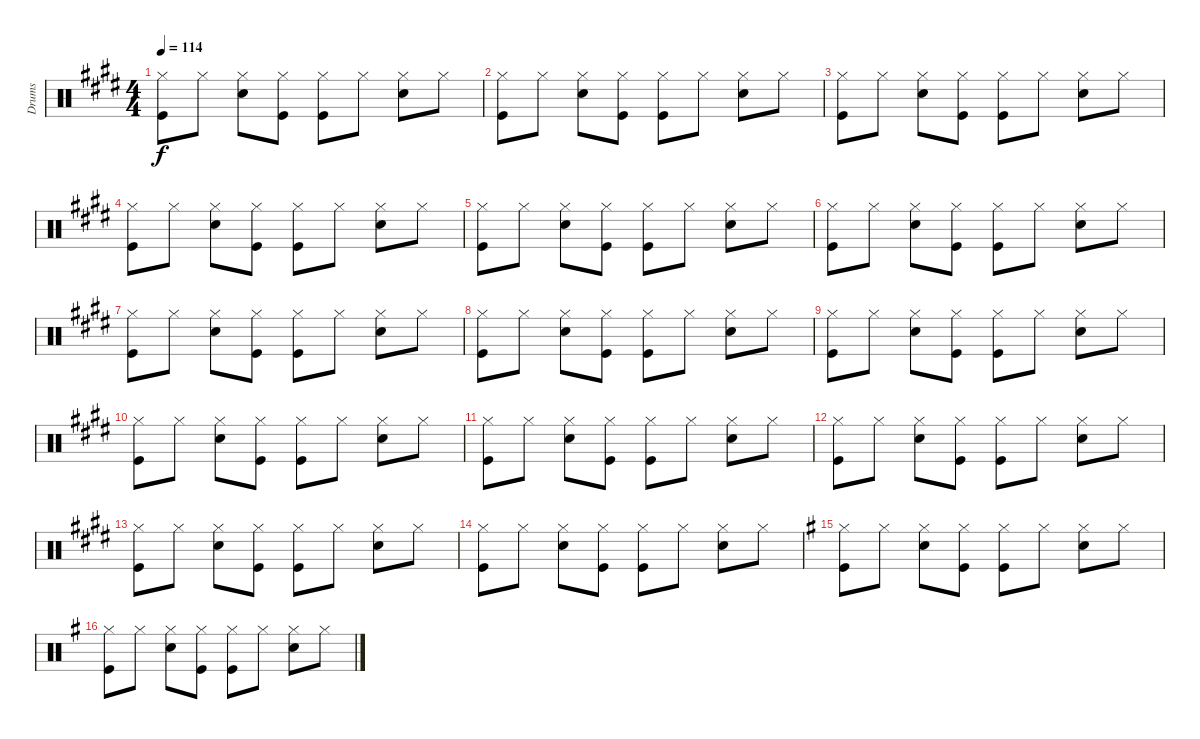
\track ("Drums" "Drums") {instrument percussion}
\staff {score}
\articulation defaults
\ts (4 4)
\tempo 114
\clef neutral
\ks e
("Hi-Hat (closed)" "Kick (hit)").8{dy f} "Hi-Hat (closed)".8 ("Snare (hit) 2" "Hi-Hat (closed)").8 ("Hi-Hat (closed)" "Kick (hit)").8 ("Hi-Hat (closed)" "Kick (hit)").8 "Hi-Hat (closed)".8 ("Hi-Hat (closed)" "Snare (hit) 2").8 "Hi-Hat (closed)".8 |
("Hi-Hat (closed)" "Kick (hit)").8 "Hi-Hat (closed)".8 ("Snare (hit) 2" "Hi-Hat (closed)").8 ("Hi-Hat (closed)" "Kick (hit)").8 ("Hi-Hat (closed)" "Kick (hit)").8 "Hi-Hat (closed)".8 ("Hi-Hat (closed)" "Snare (hit) 2").8 "Hi-Hat (closed)".8 |
("Hi-Hat (closed)" "Kick (hit)").8 "Hi-Hat (closed)".8 ("Snare (hit) 2" "Hi-Hat (closed)").8 ("Hi-Hat (closed)" "Kick (hit)").8 ("Hi-Hat (closed)" "Kick (hit)").8 "Hi-Hat (closed)".8 ("Hi-Hat (closed)" "Snare (hit) 2").8 "Hi-Hat (closed)".8 |
("Hi-Hat (closed)" "Kick (hit)").8 "Hi-Hat (closed)".8 ("Snare (hit) 2" "Hi-Hat (closed)").8 ("Hi-Hat (closed)" "Kick (hit)").8 ("Hi-Hat (closed)" "Kick (hit)").8 "Hi-Hat (closed)".8 ("Hi-Hat (closed)" "Snare (hit) 2").8 "Hi-Hat (closed)".8 |
("Hi-Hat (closed)" "Kick (hit)").8 "Hi-Hat (closed)".8 ("Snare (hit) 2" "Hi-Hat (closed)").8 ("Hi-Hat (closed)" "Kick (hit)").8 ("Hi-Hat (closed)" "Kick (hit)").8 "Hi-Hat (closed)".8 ("Hi-Hat (closed)" "Snare (hit) 2").8 "Hi-Hat (closed)".8 |
("Hi-Hat (closed)" "Kick (hit)").8 "Hi-Hat (closed)".8 ("Snare (hit) 2" "Hi-Hat (closed)").8 ("Hi-Hat (closed)" "Kick (hit)").8 ("Hi-Hat (closed)" "Kick (hit)").8 "Hi-Hat (closed)".8 ("Hi-Hat (closed)" "Snare (hit) 2").8 "Hi-Hat (closed)".8 |
("Hi-Hat (closed)" "Kick (hit)").8 "Hi-Hat (closed)".8 ("Snare (hit) 2" "Hi-Hat (closed)").8 ("Hi-Hat (closed)" "Kick (hit)").8 ("Hi-Hat (closed)" "Kick (hit)").8 "Hi-Hat (closed)".8 ("Hi-Hat (closed)" "Snare (hit) 2").8 "Hi-Hat (closed)".8 |
("Hi-Hat (closed)" "Kick (hit)").8 "Hi-Hat (closed)".8 ("Snare (hit) 2" "Hi-Hat (closed)").8 ("Hi-Hat (closed)" "Kick (hit)").8 ("Hi-Hat (closed)" "Kick (hit)").8 "Hi-Hat (closed)".8 ("Hi-Hat (closed)" "Snare (hit) 2").8 "Hi-Hat (closed)".8 |
("Hi-Hat (closed)" "Kick (hit)").8 "Hi-Hat (closed)".8 ("Snare (hit) 2" "Hi-Hat (closed)").8 ("Hi-Hat (closed)" "Kick (hit)").8 ("Hi-Hat (closed)" "Kick (hit)").8 "Hi-Hat (closed)".8 ("Hi-Hat (closed)" "Snare (hit) 2").8 "Hi-Hat (closed)".8 |
("Hi-Hat (closed)" "Kick (hit)").8 "Hi-Hat (closed)".8 ("Snare (hit) 2" "Hi-Hat (closed)").8 ("Hi-Hat (closed)" "Kick (hit)").8 ("Hi-Hat (closed)" "Kick (hit)").8 "Hi-Hat (closed)".8 ("Hi-Hat (closed)" "Snare (hit) 2").8 "Hi-Hat (closed)".8 |
("Hi-Hat (closed)" "Kick (hit)").8 "Hi-Hat (closed)".8 ("Snare (hit) 2" "Hi-Hat (closed)").8 ("Hi-Hat (closed)" "Kick (hit)").8 ("Hi-Hat (closed)" "Kick (hit)").8 "Hi-Hat (closed)".8 ("Hi-Hat (closed)" "Snare (hit) 2").8 "Hi-Hat (closed)".8 |
("Hi-Hat (closed)" "Kick (hit)").8 "Hi-Hat (closed)".8 ("Snare (hit) 2" "Hi-Hat (closed)").8 ("Hi-Hat (closed)" "Kick (hit)").8 ("Hi-Hat (closed)" "Kick (hit)").8 "Hi-Hat (closed)".8 ("Hi-Hat (closed)" "Snare (hit) 2").8 "Hi-Hat (closed)".8 |
("Hi-Hat (closed)" "Kick (hit)").8 "Hi-Hat (closed)".8 ("Snare (hit) 2" "Hi-Hat (closed)").8 ("Hi-Hat (closed)" "Kick (hit)").8 ("Hi-Hat (closed)" "Kick (hit)").8 "Hi-Hat (closed)".8 ("Hi-Hat (closed)" "Snare (hit) 2").8 "Hi-Hat (closed)".8 |
("Hi-Hat (closed)" "Kick (hit)").8 "Hi-Hat (closed)".8 ("Snare (hit) 2" "Hi-Hat (closed)").8 ("Hi-Hat (closed)" "Kick (hit)").8 ("Hi-Hat (closed)" "Kick (hit)").8 "Hi-Hat (closed)".8 ("Hi-Hat (closed)" "Snare (hit) 2").8 "Hi-Hat (closed)".8 |
\ks g
("Hi-Hat (closed)" "Kick (hit)").8 "Hi-Hat (closed)".8 ("Snare (hit) 2" "Hi-Hat (closed)").8 ("Hi-Hat (closed)" "Kick (hit)").8 ("Hi-Hat (closed)" "Kick (hit)").8 "Hi-Hat (closed)".8 ("Hi-Hat (closed)" "Snare (hit) 2").8 "Hi-Hat (closed)".8 |
("Hi-Hat (closed)" "Kick (hit)").8 "Hi-Hat (closed)".8 ("Snare (hit) 2" "Hi-Hat (closed)").8 ("Hi-Hat (closed)" "Kick (hit)").8 ("Hi-Hat (closed)" "Kick (hit)").8 "Hi-Hat (closed)".8 ("Hi-Hat (closed)" "Snare (hit) 2").8 "Hi-Hat (closed)".8
